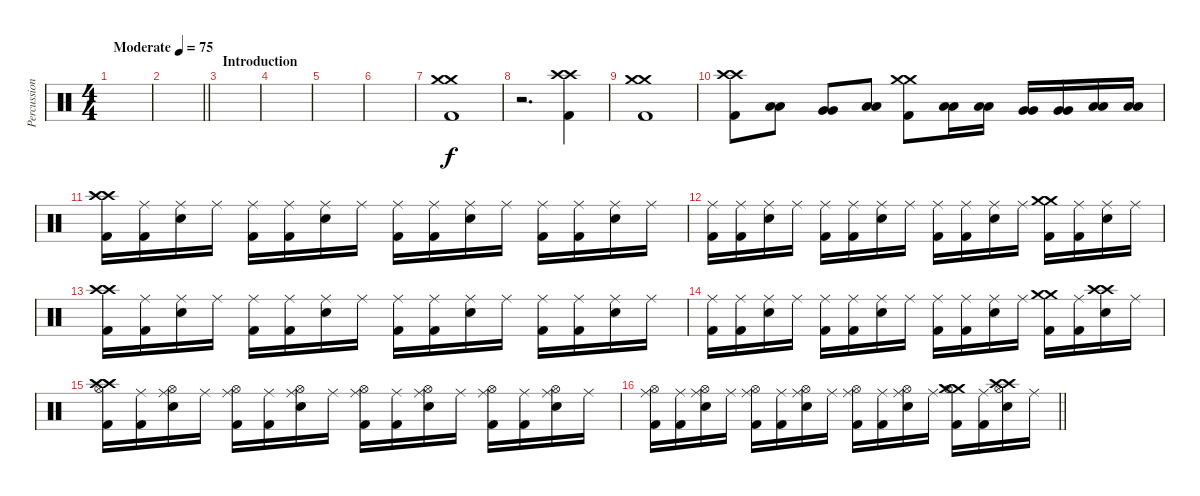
\track ("Percussions" "Percussion") {instrument percussion}
\staff {score}
\articulation defaults
\ts (4 4)
\tempo (75 "Moderate")
\clef neutral
\ks c
|
\barLineRight lightlight
|
\section ("" "Introduction")
|
|
|
|
("Crash medium (hit)" "Crash medium (hit)" "Kick (hit) 2").1 |
r.2{d} ("Crash high (hit)" "Crash high (hit)" "Kick (hit) 2").4 |
("Crash medium (hit)" "Crash medium (hit)" "Kick (hit) 2").1 |
("Crash high (hit)" "Crash high (hit)" "Kick (hit) 2").8 ("Low Tom (hit)" "Low Tom (hit)").8 ("Very Low Tom (hit)" "Very Low Tom (hit)").8 ("Low Floor Tom (hit)" "Low Floor Tom (hit)").8 ("Crash medium (hit)" "Crash medium (hit)" "Kick (hit) 2").8 ("Low Tom (hit)" "Low Tom (hit)").16 ("Low Tom (hit)" "Low Tom (hit)").16 ("Very Low Tom (hit)" "Very Low Tom (hit)").16 ("Very Low Tom (hit)" "Very Low Tom (hit)").16 ("Low Floor Tom (hit)" "Low Floor Tom (hit)").16 ("Low Floor Tom (hit)" "Low Floor Tom (hit)").16 |
("Crash high (hit)" "Crash high (hit)" "Kick (hit) 2").16 ("Ride (middle)" "Kick (hit) 2").16 ("Ride (middle)" "Snare (hit) 2").16 "Ride (middle)".16 ("Ride (middle)" "Kick (hit) 2").16 ("Ride (middle)" "Kick (hit) 2").16 ("Ride (middle)" "Snare (hit) 2").16 "Ride (middle)".16 ("Ride (middle)" "Kick (hit) 2").16 ("Ride (middle)" "Kick (hit) 2").16 ("Ride (middle)" "Snare (hit) 2").16 "Ride (middle)".16 ("Ride (middle)" "Kick (hit) 2").16 ("Ride (middle)" "Kick (hit) 2").16 ("Ride (middle)" "Snare (hit) 2").16 "Ride (middle)".16 |
("Ride (middle)" "Kick (hit) 2").16 ("Ride (middle)" "Kick (hit) 2").16 ("Ride (middle)" "Snare (hit) 2").16 "Ride (middle)".16 ("Ride (middle)" "Kick (hit) 2").16 ("Ride (middle)" "Kick (hit) 2").16 ("Ride (middle)" "Snare (hit) 2").16 "Ride (middle)".16 ("Ride (middle)" "Kick (hit) 2").16 ("Ride (middle)" "Kick (hit) 2").16 ("Ride (middle)" "Snare (hit) 2").16 "Ride (middle)".16 ("Crash medium (hit)" "Crash medium (hit)" "Kick (hit) 2").16 ("Ride (middle)" "Kick (hit) 2").16 ("Ride (middle)" "Snare (hit) 2").16 "Ride (middle)".16 |
("Crash high (hit)" "Crash high (hit)" "Kick (hit) 2").16 ("Ride (middle)" "Kick (hit) 2").16 ("Ride (middle)" "Snare (hit) 2").16 "Ride (middle)".16 ("Ride (middle)" "Kick (hit) 2").16 ("Ride (middle)" "Kick (hit) 2").16 ("Ride (middle)" "Snare (hit) 2").16 "Ride (middle)".16 ("Ride (middle)" "Kick (hit) 2").16 ("Ride (middle)" "Kick (hit) 2").16 ("Ride (middle)" "Snare (hit) 2").16 "Ride (middle)".16 ("Ride (middle)" "Kick (hit) 2").16 ("Ride (middle)" "Kick (hit) 2").16 ("Ride (middle)" "Snare (hit) 2").16 "Ride (middle)".16 |
("Ride (middle)" "Kick (hit) 2").16 ("Ride (middle)" "Kick (hit) 2").16 ("Ride (middle)" "Snare (hit) 2").16 "Ride (middle)".16 ("Ride (middle)" "Kick (hit) 2").16 ("Ride (middle)" "Kick (hit) 2").16 ("Ride (middle)" "Snare (hit) 2").16 "Ride (middle)".16 ("Ride (middle)" "Kick (hit) 2").16 ("Ride (middle)" "Kick (hit) 2").16 ("Ride (middle)" "Snare (hit) 2").16 "Ride (middle)".16 ("Crash medium (hit)" "Crash medium (hit)" "Kick (hit) 2").16 ("Ride (middle)" "Kick (hit) 2").16 ("Crash high (hit)" "Crash high (hit)" "Snare (hit) 2").16 "Ride (middle)".16 |
("Crash high (hit)" "Crash high (hit)" "Hi-Hat (open)" "Kick (hit) 2").16 ("Ride (middle)" "Kick (hit) 2").16 ("Ride (middle)" "Snare (hit) 2" "Hi-Hat (open)").16 "Ride (middle)".16 ("Ride (middle)" "Hi-Hat (open)" "Kick (hit) 2").16 ("Ride (middle)" "Kick (hit) 2").16 ("Ride (middle)" "Snare (hit) 2" "Hi-Hat (open)").16 "Ride (middle)".16 ("Ride (middle)" "Hi-Hat (open)" "Kick (hit) 2").16 ("Ride (middle)" "Kick (hit) 2").16 ("Ride (middle)" "Snare (hit) 2" "Hi-Hat (open)").16 "Ride (middle)".16 ("Ride (middle)" "Hi-Hat (open)" "Kick (hit) 2").16 ("Ride (middle)" "Kick (hit) 2").16 ("Ride (middle)" "Snare (hit) 2" "Hi-Hat (open)").16 "Ride (middle)".16 |
\barLineRight lightlight
("Ride (middle)" "Hi-Hat (open)" "Kick (hit) 2").16 ("Ride (middle)" "Kick (hit) 2").16 ("Ride (middle)" "Snare (hit) 2" "Hi-Hat (open)").16 "Ride (middle)".16 ("Ride (middle)" "Hi-Hat (open)" "Kick (hit) 2").16 ("Ride (middle)" "Kick (hit) 2").16 ("Ride (middle)" "Snare (hit) 2" "Hi-Hat (open)").16 "Ride (middle)".16 ("Ride (middle)" "Hi-Hat (open)" "Kick (hit) 2").16 ("Ride (middle)" "Kick (hit) 2").16 ("Ride (middle)" "Snare (hit) 2" "Hi-Hat (open)").16 "Ride (middle)".16 ("Crash medium (hit)" "Crash medium (hit)" "Hi-Hat (open)" "Kick (hit) 2").16 ("Ride (middle)" "Kick (hit) 2").16 ("Crash high (hit)" "Crash high (hit)" "Snare (hit) 2" "Hi-Hat (open)").16 "Ride (middle)".16
